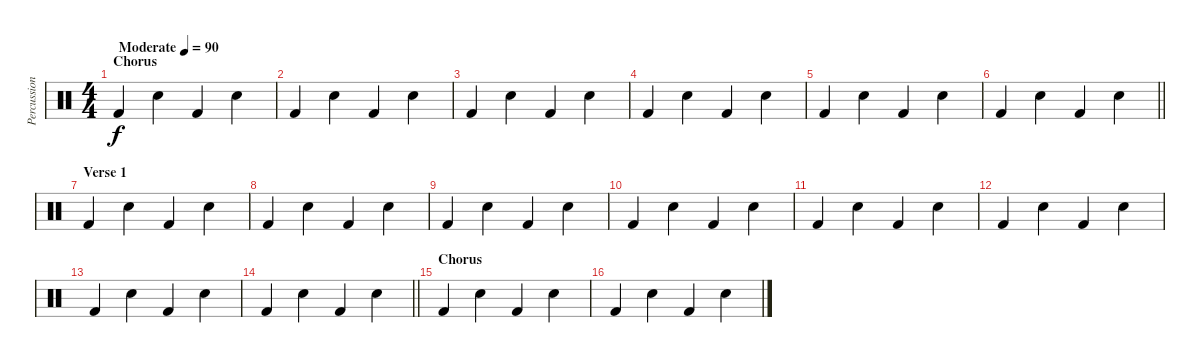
\track ("Percussion" "Percussion") {instrument percussion}
\staff {score}
\articulation defaults
\ts (4 4)
\section ("" "Chorus")
\tempo (90 "Moderate")
\clef neutral
\ks c "Kick (hit) 2".4{dy f} "Snare (hit) 2".4 "Kick (hit) 2".4 "Snare (hit) 2".4
|
"Kick (hit) 2".4 "Snare (hit) 2".4 "Kick (hit) 2".4 "Snare (hit) 2".4 |
"Kick (hit) 2".4 "Snare (hit) 2".4 "Kick (hit) 2".4 "Snare (hit) 2".4 |
"Kick (hit) 2".4 "Snare (hit) 2".4 "Kick (hit) 2".4 "Snare (hit) 2".4 |
"Kick (hit) 2".4 "Snare (hit) 2".4 "Kick (hit) 2".4 "Snare (hit) 2".4 |
\barLineRight lightlight "Kick (hit) 2".4 "Snare (hit) 2".4 "Kick (hit) 2".4 "Snare (hit) 2".4
|
\section ("" "Verse 1")
"Kick (hit) 2".4 "Snare (hit) 2".4 "Kick (hit) 2".4 "Snare (hit) 2".4 |
"Kick (hit) 2".4 "Snare (hit) 2".4 "Kick (hit) 2".4 "Snare (hit) 2".4 |
"Kick (hit) 2".4 "Snare (hit) 2".4 "Kick (hit) 2".4 "Snare (hit) 2".4 |
"Kick (hit) 2".4 "Snare (hit) 2".4 "Kick (hit) 2".4 "Snare (hit) 2".4 |
"Kick (hit) 2".4 "Snare (hit) 2".4 "Kick (hit) 2".4 "Snare (hit) 2".4 |
"Kick (hit) 2".4 "Snare (hit) 2".4 "Kick (hit) 2".4 "Snare (hit) 2".4 |
"Kick (hit) 2".4 "Snare (hit) 2".4 "Kick (hit) 2".4 "Snare (hit) 2".4 |
\barLineRight lightlight "Kick (hit) 2".4 "Snare (hit) 2".4 "Kick (hit) 2".4 "Snare (hit) 2".4
|
\section ("" "Chorus")
"Kick (hit) 2".4 "Snare (hit) 2".4 "Kick (hit) 2".4 "Snare (hit) 2".4 |
"Kick (hit) 2".4 "Snare (hit) 2".4 "Kick (hit) 2".4 "Snare (hit) 2".4
